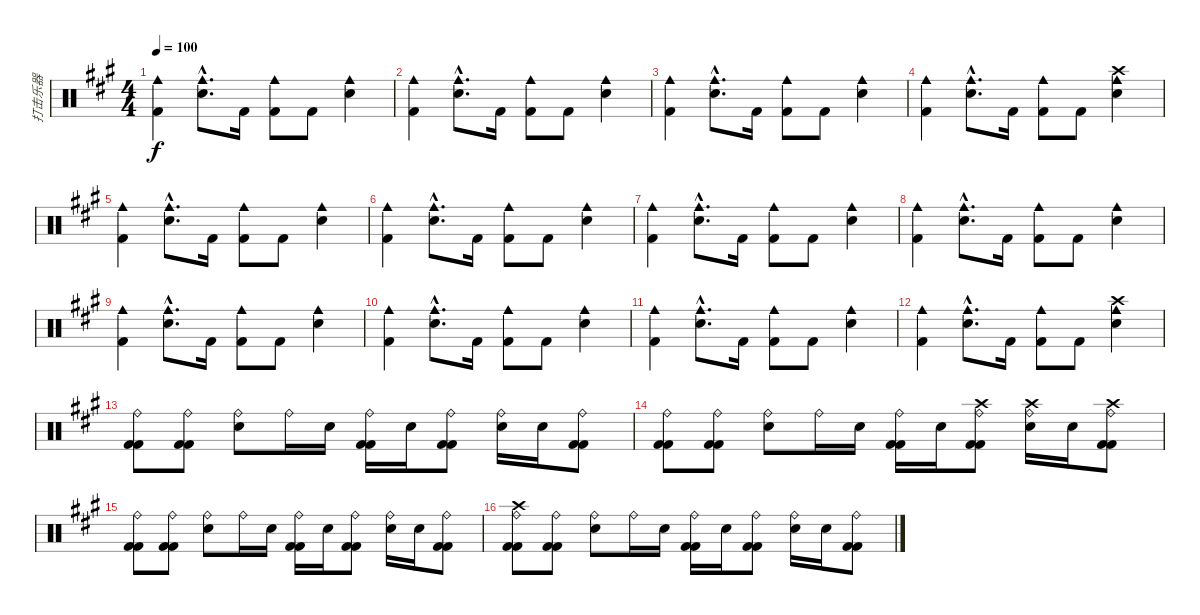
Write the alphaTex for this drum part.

\track ("打击乐器" "打击乐器") {instrument percussion}
\staff {score}
\articulation defaults
\ts (4 4)
\tempo 100
\clef neutral
\ks a
("Cowbell medium (hit)" "Kick (hit) 2").4{dy f} ("Cowbell medium (hit)"{hac} "Electric Snare (hit)"{hac}).8{d} "Kick (hit) 2".16 ("Cowbell medium (hit)" "Kick (hit) 2").8 "Kick (hit) 2".8 ("Cowbell medium (hit)" "Electric Snare (hit)").4 |
("Cowbell medium (hit)" "Kick (hit) 2").4 ("Cowbell medium (hit)"{hac} "Electric Snare (hit)"{hac}).8{d} "Kick (hit) 2".16 ("Cowbell medium (hit)" "Kick (hit) 2").8 "Kick (hit) 2".8 ("Cowbell medium (hit)" "Electric Snare (hit)").4 |
("Cowbell medium (hit)" "Kick (hit) 2").4 ("Cowbell medium (hit)"{hac} "Electric Snare (hit)"{hac}).8{d} "Kick (hit) 2".16 ("Cowbell medium (hit)" "Kick (hit) 2").8 "Kick (hit) 2".8 ("Cowbell medium (hit)" "Electric Snare (hit)").4 |
("Cowbell medium (hit)" "Kick (hit) 2").4 ("Cowbell medium (hit)"{hac} "Electric Snare (hit)"{hac}).8{d} "Kick (hit) 2".16 ("Cowbell medium (hit)" "Kick (hit) 2").8 "Kick (hit) 2".8 ("Crash high (hit)" "Cowbell medium (hit)" "Electric Snare (hit)").4 |
("Cowbell medium (hit)" "Kick (hit) 2").4 ("Cowbell medium (hit)"{hac} "Electric Snare (hit)"{hac}).8{d} "Kick (hit) 2".16 ("Cowbell medium (hit)" "Kick (hit) 2").8 "Kick (hit) 2".8 ("Cowbell medium (hit)" "Electric Snare (hit)").4 |
("Cowbell medium (hit)" "Kick (hit) 2").4 ("Cowbell medium (hit)"{hac} "Electric Snare (hit)"{hac}).8{d} "Kick (hit) 2".16 ("Cowbell medium (hit)" "Kick (hit) 2").8 "Kick (hit) 2".8 ("Cowbell medium (hit)" "Electric Snare (hit)").4 |
("Cowbell medium (hit)" "Kick (hit) 2").4 ("Cowbell medium (hit)"{hac} "Electric Snare (hit)"{hac}).8{d} "Kick (hit) 2".16 ("Cowbell medium (hit)" "Kick (hit) 2").8 "Kick (hit) 2".8 ("Cowbell medium (hit)" "Electric Snare (hit)").4 |
("Cowbell medium (hit)" "Kick (hit) 2").4 ("Cowbell medium (hit)"{hac} "Electric Snare (hit)"{hac}).8{d} "Kick (hit) 2".16 ("Cowbell medium (hit)" "Kick (hit) 2").8 "Kick (hit) 2".8 ("Cowbell medium (hit)" "Electric Snare (hit)").4 |
("Cowbell medium (hit)" "Kick (hit) 2").4 ("Cowbell medium (hit)"{hac} "Electric Snare (hit)"{hac}).8{d} "Kick (hit) 2".16 ("Cowbell medium (hit)" "Kick (hit) 2").8 "Kick (hit) 2".8 ("Cowbell medium (hit)" "Electric Snare (hit)").4 |
("Cowbell medium (hit)" "Kick (hit) 2").4 ("Cowbell medium (hit)"{hac} "Electric Snare (hit)"{hac}).8{d} "Kick (hit) 2".16 ("Cowbell medium (hit)" "Kick (hit) 2").8 "Kick (hit) 2".8 ("Cowbell medium (hit)" "Electric Snare (hit)").4 |
("Cowbell medium (hit)" "Kick (hit) 2").4 ("Cowbell medium (hit)"{hac} "Electric Snare (hit)"{hac}).8{d} "Kick (hit) 2".16 ("Cowbell medium (hit)" "Kick (hit) 2").8 "Kick (hit) 2".8 ("Cowbell medium (hit)" "Electric Snare (hit)").4 |
("Cowbell medium (hit)" "Kick (hit) 2").4 ("Cowbell medium (hit)"{hac} "Electric Snare (hit)"{hac}).8{d} "Kick (hit) 2".16 ("Cowbell medium (hit)" "Kick (hit) 2").8 "Kick (hit) 2".8 ("Crash high (hit)" "Cowbell medium (hit)" "Electric Snare (hit)").4 |
("Ride (bell)" "Kick (hit) 2" "Kick (hit) 2").8 ("Ride (bell)" "Kick (hit) 2" "Kick (hit) 2").8 ("Ride (bell)" "Electric Snare (hit)").8 "Ride (bell)".16 "Electric Snare (hit)".16 ("Ride (bell)" "Kick (hit) 2" "Kick (hit) 2").16 "Electric Snare (hit)".16 ("Ride (bell)" "Kick (hit) 2" "Kick (hit) 2").8 ("Ride (bell)" "Electric Snare (hit)").16 "Electric Snare (hit)".16 ("Ride (bell)" "Kick (hit) 2" "Kick (hit) 2").8 |
("Ride (bell)" "Kick (hit) 2" "Kick (hit) 2").8 ("Ride (bell)" "Kick (hit) 2" "Kick (hit) 2").8 ("Ride (bell)" "Electric Snare (hit)").8 "Ride (bell)".16 "Electric Snare (hit)".16 ("Ride (bell)" "Kick (hit) 2" "Kick (hit) 2").16 "Electric Snare (hit)".16 ("Ride (bell)" "Crash high (hit)" "Kick (hit) 2" "Kick (hit) 2").8 ("Ride (bell)" "Crash high (hit)" "Electric Snare (hit)").16 "Electric Snare (hit)".16 ("Ride (bell)" "Crash high (hit)" "Kick (hit) 2" "Kick (hit) 2").8 |
("Ride (bell)" "Kick (hit) 2" "Kick (hit) 2").8 ("Ride (bell)" "Kick (hit) 2" "Kick (hit) 2").8 ("Ride (bell)" "Electric Snare (hit)").8 "Ride (bell)".16 "Electric Snare (hit)".16 ("Ride (bell)" "Kick (hit) 2" "Kick (hit) 2").16 "Electric Snare (hit)".16 ("Ride (bell)" "Kick (hit) 2" "Kick (hit) 2").8 ("Ride (bell)" "Electric Snare (hit)").16 "Electric Snare (hit)".16 ("Ride (bell)" "Kick (hit) 2" "Kick (hit) 2").8 |
("Ride (bell)" "Crash high (hit)" "Kick (hit) 2" "Kick (hit) 2").8 ("Ride (bell)" "Kick (hit) 2" "Kick (hit) 2").8 ("Ride (bell)" "Electric Snare (hit)").8 "Ride (bell)".16 "Electric Snare (hit)".16 ("Ride (bell)" "Kick (hit) 2" "Kick (hit) 2").16 "Electric Snare (hit)".16 ("Ride (bell)" "Kick (hit) 2" "Kick (hit) 2").8 ("Ride (bell)" "Electric Snare (hit)").16 "Electric Snare (hit)".16 ("Ride (bell)" "Kick (hit) 2" "Kick (hit) 2").8
